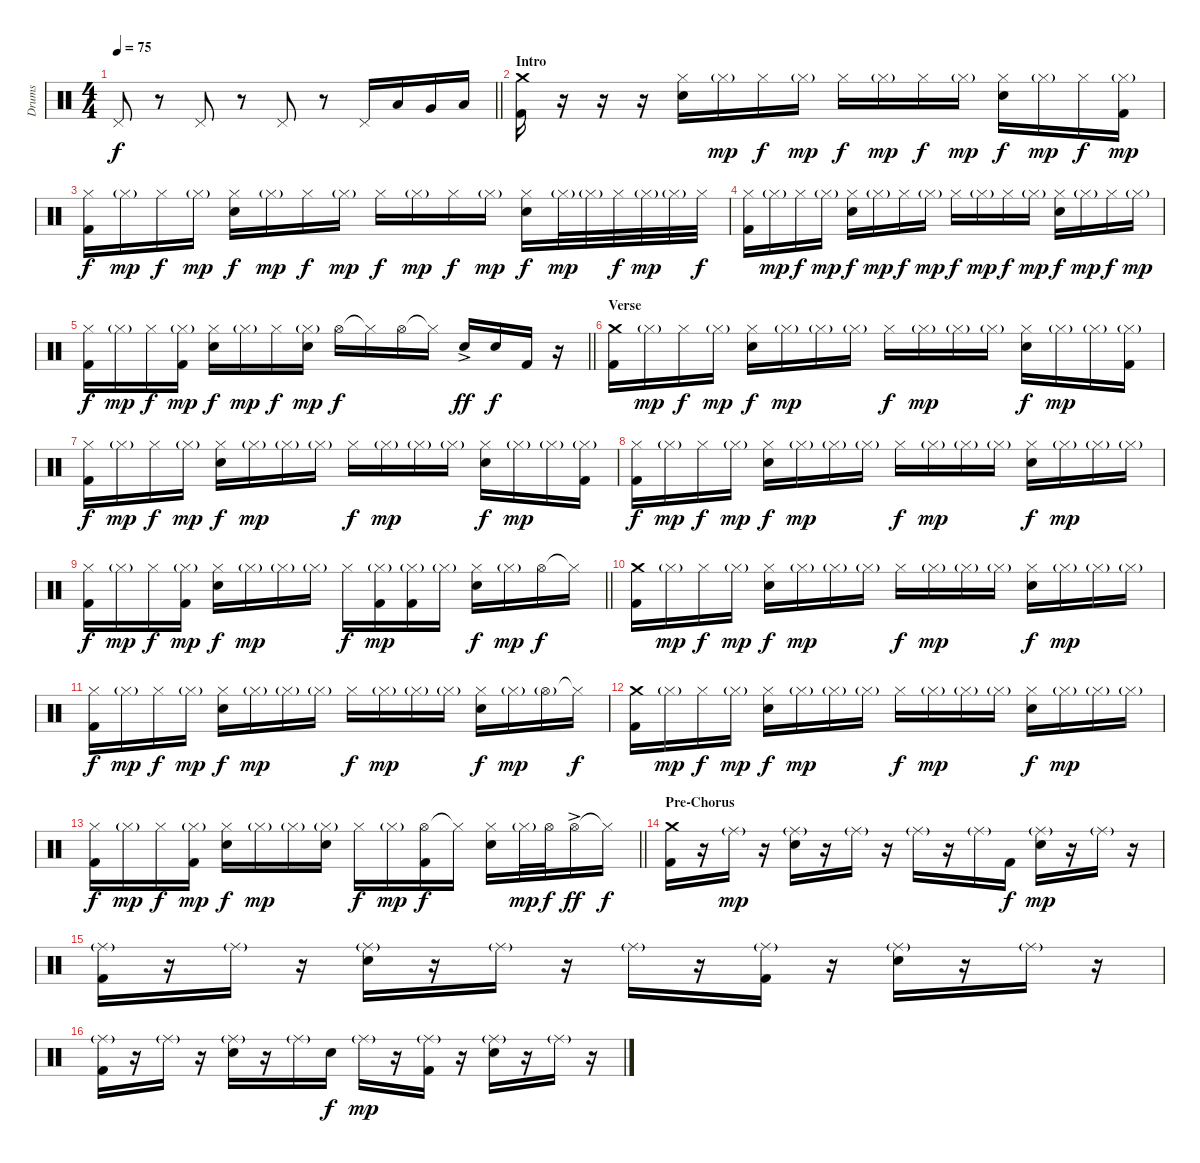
\track ("Drums" "Drums") {instrument percussion}
\staff {score}
\articulation defaults
\ts (4 4)
\tempo 75
\clef neutral
\barLineRight lightlight
\ks c "Pedal Hi-Hat (hit)".8{dy f}
r.8 "Pedal Hi-Hat (hit)".8 r.8 "Pedal Hi-Hat (hit)".8 r.8 "Pedal Hi-Hat (hit)".16 "Low Tom (hit)".16 "Very Low Tom (hit)".16 "Low Floor Tom (hit)".16 |
\section ("" "Intro")
("Crash medium (hit)" "Kick (hit) 2").16 r.16 r.16 r.16 ("Hi-Hat (closed)" "Snare (hit) 2").16 "Hi-Hat (closed)"{g}.16{dy mp} "Hi-Hat (closed)".16{dy f} "Hi-Hat (closed)"{g}.16{dy mp} "Hi-Hat (closed)".16{dy f} "Hi-Hat (closed)"{g}.16{dy mp} "Hi-Hat (closed)".16{dy f} "Hi-Hat (closed)"{g}.16{dy mp} ("Hi-Hat (closed)" "Snare (hit) 2").16{dy f} "Hi-Hat (closed)"{g}.16{dy mp} "Hi-Hat (closed)".16{dy f} ("Hi-Hat (closed)"{g} "Kick (hit) 2").16{dy mp} |
("Hi-Hat (closed)" "Kick (hit) 2").16{dy f} "Hi-Hat (closed)"{g}.16{dy mp} "Hi-Hat (closed)".16{dy f} "Hi-Hat (closed)"{g}.16{dy mp} ("Hi-Hat (closed)" "Snare (hit) 2").16{dy f} "Hi-Hat (closed)"{g}.16{dy mp} "Hi-Hat (closed)".16{dy f} "Hi-Hat (closed)"{g}.16{dy mp} "Hi-Hat (closed)".16{dy f} "Hi-Hat (closed)"{g}.16{dy mp} "Hi-Hat (closed)".16{dy f} "Hi-Hat (closed)"{g}.16{dy mp} ("Hi-Hat (closed)" "Snare (hit) 2").16{dy f} "Hi-Hat (closed)"{g}.32{dy mp} "Hi-Hat (closed)"{g}.32 "Hi-Hat (closed)".32{dy f} "Hi-Hat (closed)"{g}.32{dy mp} "Hi-Hat (closed)"{g}.32 "Hi-Hat (closed)".32{dy f} |
("Hi-Hat (closed)" "Kick (hit) 2").16 "Hi-Hat (closed)"{g}.16{dy mp} "Hi-Hat (closed)".16{dy f} "Hi-Hat (closed)"{g}.16{dy mp} ("Hi-Hat (closed)" "Snare (hit) 2").16{dy f} "Hi-Hat (closed)"{g}.16{dy mp} "Hi-Hat (closed)".16{dy f} "Hi-Hat (closed)"{g}.16{dy mp} "Hi-Hat (closed)".16{dy f} "Hi-Hat (closed)"{g}.16{dy mp} "Hi-Hat (closed)".16{dy f} "Hi-Hat (closed)"{g}.16{dy mp} ("Hi-Hat (closed)" "Snare (hit) 2").16{dy f} "Hi-Hat (closed)"{g}.16{dy mp} "Hi-Hat (closed)".16{dy f} "Hi-Hat (closed)"{g}.16{dy mp} |
\barLineRight lightlight
("Hi-Hat (closed)" "Kick (hit) 2").16{dy f} "Hi-Hat (closed)"{g}.16{dy mp} "Hi-Hat (closed)".16{dy f} ("Hi-Hat (closed)"{g} "Kick (hit) 2").16{dy mp} ("Hi-Hat (closed)" "Snare (hit) 2").16{dy f} "Hi-Hat (closed)"{g}.16{dy mp} "Hi-Hat (closed)".16{dy f} ("Hi-Hat (closed)"{g} "Snare (hit) 2").16{dy mp} "Hi-Hat (open)".16{dy f} "Hi-Hat (closed)"{t}.16 "Hi-Hat (open)".16 "Hi-Hat (closed)"{t}.16 "Snare (hit) 2"{ac}.16{dy ff} "Snare (hit) 2".16{dy f} "Kick (hit) 2".16 r.16 |
\section ("" "Verse")
("Crash medium (hit)" "Kick (hit) 2").16 "Hi-Hat (closed)"{g}.16{dy mp} "Hi-Hat (closed)".16{dy f} "Hi-Hat (closed)"{g}.16{dy mp} ("Hi-Hat (closed)" "Snare (hit) 2").16{dy f} "Hi-Hat (closed)"{g}.16{dy mp} "Hi-Hat (closed)"{g}.16 "Hi-Hat (closed)"{g}.16 "Hi-Hat (closed)".16{dy f} "Hi-Hat (closed)"{g}.16{dy mp} "Hi-Hat (closed)"{g}.16 "Hi-Hat (closed)"{g}.16 ("Hi-Hat (closed)" "Snare (hit) 2").16{dy f} "Hi-Hat (closed)"{g}.16{dy mp} "Hi-Hat (closed)"{g}.16 ("Hi-Hat (closed)"{g} "Kick (hit) 2").16 |
("Hi-Hat (closed)" "Kick (hit) 2").16{dy f} "Hi-Hat (closed)"{g}.16{dy mp} "Hi-Hat (closed)".16{dy f} "Hi-Hat (closed)"{g}.16{dy mp} ("Hi-Hat (closed)" "Snare (hit) 2").16{dy f} "Hi-Hat (closed)"{g}.16{dy mp} "Hi-Hat (closed)"{g}.16 "Hi-Hat (closed)"{g}.16 "Hi-Hat (closed)".16{dy f} "Hi-Hat (closed)"{g}.16{dy mp} "Hi-Hat (closed)"{g}.16 "Hi-Hat (closed)"{g}.16 ("Hi-Hat (closed)" "Snare (hit) 2").16{dy f} "Hi-Hat (closed)"{g}.16{dy mp} "Hi-Hat (closed)"{g}.16 ("Hi-Hat (closed)"{g} "Kick (hit) 2").16 |
("Hi-Hat (closed)" "Kick (hit) 2").16{dy f} "Hi-Hat (closed)"{g}.16{dy mp} "Hi-Hat (closed)".16{dy f} "Hi-Hat (closed)"{g}.16{dy mp} ("Hi-Hat (closed)" "Snare (hit) 2").16{dy f} "Hi-Hat (closed)"{g}.16{dy mp} "Hi-Hat (closed)"{g}.16 "Hi-Hat (closed)"{g}.16 "Hi-Hat (closed)".16{dy f} "Hi-Hat (closed)"{g}.16{dy mp} "Hi-Hat (closed)"{g}.16 "Hi-Hat (closed)"{g}.16 ("Hi-Hat (closed)" "Snare (hit) 2").16{dy f} "Hi-Hat (closed)"{g}.16{dy mp} "Hi-Hat (closed)"{g}.16 "Hi-Hat (closed)"{g}.16 |
\barLineRight lightlight
("Hi-Hat (closed)" "Kick (hit) 2").16{dy f} "Hi-Hat (closed)"{g}.16{dy mp} "Hi-Hat (closed)".16{dy f} ("Hi-Hat (closed)"{g} "Kick (hit) 2").16{dy mp} ("Hi-Hat (closed)" "Snare (hit) 2").16{dy f} "Hi-Hat (closed)"{g}.16{dy mp} "Hi-Hat (closed)"{g}.16 "Hi-Hat (closed)"{g}.16 "Hi-Hat (closed)".16{dy f} ("Hi-Hat (closed)"{g} "Kick (hit) 2").16{dy mp} ("Hi-Hat (closed)"{g} "Kick (hit) 2").16 "Hi-Hat (closed)"{g}.16 ("Hi-Hat (closed)" "Snare (hit) 2").16{dy f} "Hi-Hat (closed)"{g}.16{dy mp} "Hi-Hat (open)".16{dy f} "Hi-Hat (closed)"{t}.16 |
("Crash medium (hit)" "Kick (hit) 2").16 "Hi-Hat (closed)"{g}.16{dy mp} "Hi-Hat (closed)".16{dy f} "Hi-Hat (closed)"{g}.16{dy mp} ("Hi-Hat (closed)" "Snare (hit) 2").16{dy f} "Hi-Hat (closed)"{g}.16{dy mp} "Hi-Hat (closed)"{g}.16 "Hi-Hat (closed)"{g}.16 "Hi-Hat (closed)".16{dy f} "Hi-Hat (closed)"{g}.16{dy mp} "Hi-Hat (closed)"{g}.16 "Hi-Hat (closed)"{g}.16 ("Hi-Hat (closed)" "Snare (hit) 2").16{dy f} "Hi-Hat (closed)"{g}.16{dy mp} "Hi-Hat (closed)"{g}.16 "Hi-Hat (closed)"{g}.16 |
("Hi-Hat (closed)" "Kick (hit) 2").16{dy f} "Hi-Hat (closed)"{g}.16{dy mp} "Hi-Hat (closed)".16{dy f} "Hi-Hat (closed)"{g}.16{dy mp} ("Hi-Hat (closed)" "Snare (hit) 2").16{dy f} "Hi-Hat (closed)"{g}.16{dy mp} "Hi-Hat (closed)"{g}.16 "Hi-Hat (closed)"{g}.16 "Hi-Hat (closed)".16{dy f} "Hi-Hat (closed)"{g}.16{dy mp} "Hi-Hat (closed)"{g}.16 "Hi-Hat (closed)"{g}.16 ("Hi-Hat (closed)" "Snare (hit) 2").16{dy f} "Hi-Hat (closed)"{g}.16{dy mp} "Hi-Hat (open)"{g}.16 "Hi-Hat (closed)"{t}.16{dy f} |
("Crash medium (hit)" "Kick (hit) 2").16 "Hi-Hat (closed)"{g}.16{dy mp} "Hi-Hat (closed)".16{dy f} "Hi-Hat (closed)"{g}.16{dy mp} ("Hi-Hat (closed)" "Snare (hit) 2").16{dy f} "Hi-Hat (closed)"{g}.16{dy mp} "Hi-Hat (closed)"{g}.16 "Hi-Hat (closed)"{g}.16 "Hi-Hat (closed)".16{dy f} "Hi-Hat (closed)"{g}.16{dy mp} "Hi-Hat (closed)"{g}.16 "Hi-Hat (closed)"{g}.16 ("Hi-Hat (closed)" "Snare (hit) 2").16{dy f} "Hi-Hat (closed)"{g}.16{dy mp} "Hi-Hat (closed)"{g}.16 "Hi-Hat (closed)"{g}.16 |
\barLineRight lightlight
("Hi-Hat (closed)" "Kick (hit) 2").16{dy f} "Hi-Hat (closed)"{g}.16{dy mp} "Hi-Hat (closed)".16{dy f} ("Hi-Hat (closed)"{g} "Kick (hit) 2").16{dy mp} ("Hi-Hat (closed)" "Snare (hit) 2").16{dy f} "Hi-Hat (closed)"{g}.16{dy mp} "Hi-Hat (closed)"{g}.16 ("Hi-Hat (closed)"{g} "Snare (hit) 2").16 "Hi-Hat (closed)".16{dy f} "Hi-Hat (closed)"{g}.16{dy mp} ("Hi-Hat (open)" "Kick (hit) 2").16{dy f} "Hi-Hat (closed)"{t}.16 ("Hi-Hat (closed)" "Snare (hit) 2").16 "Hi-Hat (closed)"{g}.32{dy mp} "Hi-Hat (open)".32{dy f} "Hi-Hat (open)"{ac}.16{dy ff} "Hi-Hat (closed)"{t}.16{dy f} |
\section ("" "Pre-Chorus")
("Crash medium (hit)" "Kick (hit) 2").16 r.16 "Ride (middle)"{g}.16{dy mp} r.16 ("Ride (middle)"{g} "Snare (hit) 2").16 r.16 "Ride (middle)"{g}.16 r.16 "Ride (middle)"{g}.16 r.16 "Ride (middle)"{g}.16 "Kick (hit) 2".16{dy f} ("Ride (middle)"{g} "Snare (hit) 2").16{dy mp} r.16 "Ride (middle)"{g}.16 r.16 |
("Ride (middle)"{g} "Kick (hit) 2").16 r.16 "Ride (middle)"{g}.16 r.16 ("Ride (middle)"{g} "Snare (hit) 2").16 r.16 "Ride (middle)"{g}.16 r.16 "Ride (middle)"{g}.16 r.16 ("Ride (middle)"{g} "Kick (hit) 2").16 r.16 ("Ride (middle)"{g} "Snare (hit) 2").16 r.16 "Ride (middle)"{g}.16 r.16 |
("Ride (middle)"{g} "Kick (hit) 2").16 r.16 "Ride (middle)"{g}.16 r.16 ("Ride (middle)"{g} "Snare (hit) 2").16 r.16 "Ride (middle)"{g}.16 "Snare (hit) 2".16{dy f} "Ride (middle)"{g}.16{dy mp} r.16 ("Ride (middle)"{g} "Kick (hit) 2").16 r.16 ("Ride (middle)"{g} "Snare (hit) 2").16 r.16 "Ride (middle)"{g}.16 r.16
